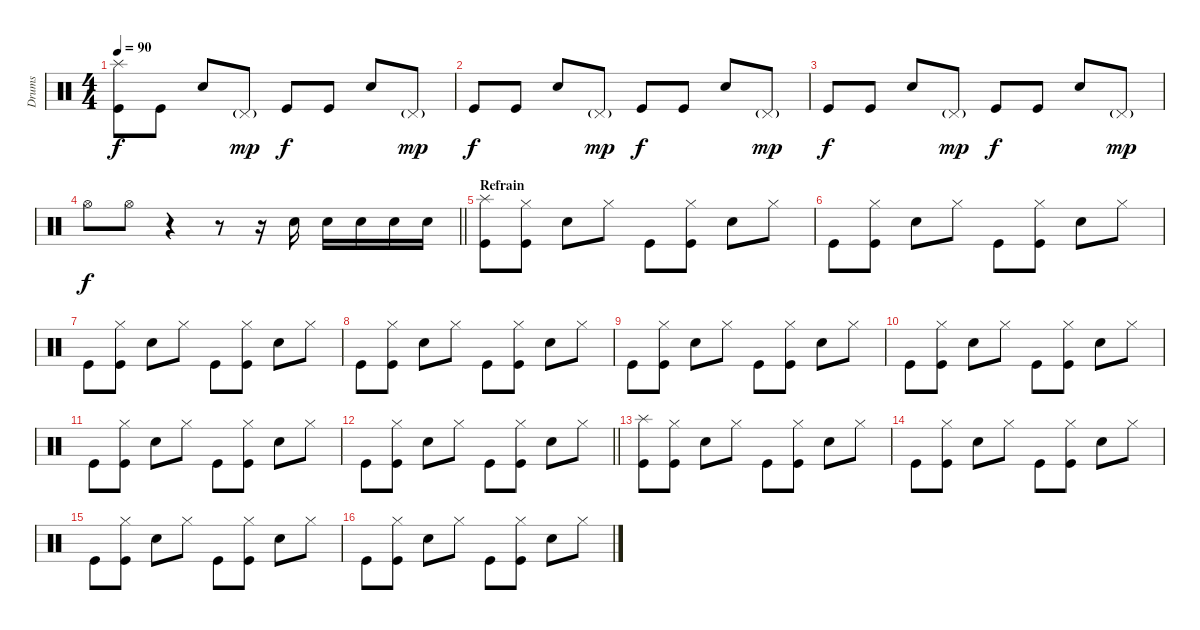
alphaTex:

\track ("Drums" "Drums") {instrument percussion}
\staff {score}
\articulation defaults
\ts (4 4)
\tempo 90
\clef neutral
\ks c
("Splash (hit)" "Kick (hit)").8{dy f} "Kick (hit)".8 "Snare (hit) 2".8 "Pedal Hi-Hat (hit)"{g}.8{dy mp} "Kick (hit)".8{dy f} "Kick (hit)".8 "Snare (hit) 2".8 "Pedal Hi-Hat (hit)"{g}.8{dy mp} |
"Kick (hit)".8{dy f} "Kick (hit)".8 "Snare (hit) 2".8 "Pedal Hi-Hat (hit)"{g}.8{dy mp} "Kick (hit)".8{dy f} "Kick (hit)".8 "Snare (hit) 2".8 "Pedal Hi-Hat (hit)"{g}.8{dy mp} |
"Kick (hit)".8{dy f} "Kick (hit)".8 "Snare (hit) 2".8 "Pedal Hi-Hat (hit)"{g}.8{dy mp} "Kick (hit)".8{dy f} "Kick (hit)".8 "Snare (hit) 2".8 "Pedal Hi-Hat (hit)"{g}.8{dy mp} |
\barLineRight lightlight "Hi-Hat (open)".8{dy f} "Hi-Hat (open)".8
r.4 r.8 r.16 "Snare (hit) 2".16 "Snare (hit) 2".16 "Snare (hit) 2".16 "Snare (hit) 2".16 "Snare (hit) 2".16 |
\section ("" "Refrain")
("Splash (hit)" "Kick (hit)").8 ("Hi-Hat (closed)" "Kick (hit)").8 "Snare (hit) 2".8 "Hi-Hat (closed)".8 "Kick (hit)".8 ("Hi-Hat (closed)" "Kick (hit)").8 "Snare (hit) 2".8 "Hi-Hat (closed)".8 |
"Kick (hit)".8 ("Hi-Hat (closed)" "Kick (hit)").8 "Snare (hit) 2".8 "Hi-Hat (closed)".8 "Kick (hit)".8 ("Hi-Hat (closed)" "Kick (hit)").8 "Snare (hit) 2".8 "Hi-Hat (closed)".8 |
"Kick (hit)".8 ("Hi-Hat (closed)" "Kick (hit)").8 "Snare (hit) 2".8 "Hi-Hat (closed)".8 "Kick (hit)".8 ("Hi-Hat (closed)" "Kick (hit)").8 "Snare (hit) 2".8 "Hi-Hat (closed)".8 |
"Kick (hit)".8 ("Hi-Hat (closed)" "Kick (hit)").8 "Snare (hit) 2".8 "Hi-Hat (closed)".8 "Kick (hit)".8 ("Hi-Hat (closed)" "Kick (hit)").8 "Snare (hit) 2".8 "Hi-Hat (closed)".8 |
"Kick (hit)".8 ("Hi-Hat (closed)" "Kick (hit)").8 "Snare (hit) 2".8 "Hi-Hat (closed)".8 "Kick (hit)".8 ("Hi-Hat (closed)" "Kick (hit)").8 "Snare (hit) 2".8 "Hi-Hat (closed)".8 |
"Kick (hit)".8 ("Hi-Hat (closed)" "Kick (hit)").8 "Snare (hit) 2".8 "Hi-Hat (closed)".8 "Kick (hit)".8 ("Hi-Hat (closed)" "Kick (hit)").8 "Snare (hit) 2".8 "Hi-Hat (closed)".8 |
"Kick (hit)".8 ("Hi-Hat (closed)" "Kick (hit)").8 "Snare (hit) 2".8 "Hi-Hat (closed)".8 "Kick (hit)".8 ("Hi-Hat (closed)" "Kick (hit)").8 "Snare (hit) 2".8 "Hi-Hat (closed)".8 |
\barLineRight lightlight "Kick (hit)".8
("Hi-Hat (closed)" "Kick (hit)").8 "Snare (hit) 2".8 "Hi-Hat (closed)".8 "Kick (hit)".8 ("Hi-Hat (closed)" "Kick (hit)").8 "Snare (hit) 2".8 "Hi-Hat (closed)".8 |
("Splash (hit)" "Kick (hit)").8 ("Hi-Hat (closed)" "Kick (hit)").8 "Snare (hit) 2".8 "Hi-Hat (closed)".8 "Kick (hit)".8 ("Hi-Hat (closed)" "Kick (hit)").8 "Snare (hit) 2".8 "Hi-Hat (closed)".8 |
"Kick (hit)".8 ("Hi-Hat (closed)" "Kick (hit)").8 "Snare (hit) 2".8 "Hi-Hat (closed)".8 "Kick (hit)".8 ("Hi-Hat (closed)" "Kick (hit)").8 "Snare (hit) 2".8 "Hi-Hat (closed)".8 |
"Kick (hit)".8 ("Hi-Hat (closed)" "Kick (hit)").8 "Snare (hit) 2".8 "Hi-Hat (closed)".8 "Kick (hit)".8 ("Hi-Hat (closed)" "Kick (hit)").8 "Snare (hit) 2".8 "Hi-Hat (closed)".8 |
"Kick (hit)".8 ("Hi-Hat (closed)" "Kick (hit)").8 "Snare (hit) 2".8 "Hi-Hat (closed)".8 "Kick (hit)".8 ("Hi-Hat (closed)" "Kick (hit)").8 "Snare (hit) 2".8 "Hi-Hat (closed)".8
